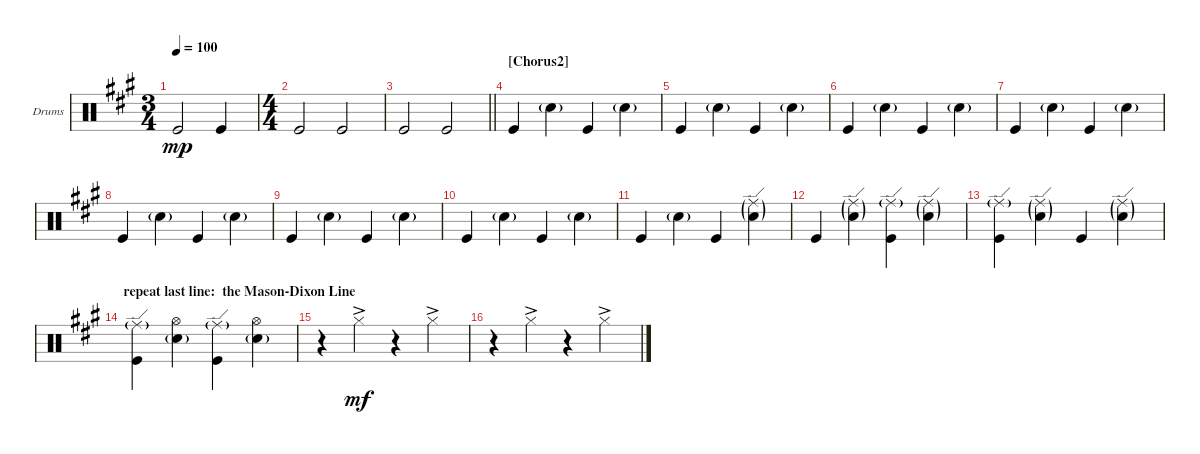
\bracketExtendMode groupsimilarinstruments
\firstSystemTrackNameOrientation horizontal
\otherSystemsTrackNameOrientation horizontal
\track ("Drumkit" "Drums") {instrument percussion}
\staff {score}
\articulation defaults
\ts (3 4)
\tempo 100
\clef neutral
\scale
0.333333
\ks f#minor "Kick (hit)".2{dy mp} "Kick (hit)".4
|
\ts (4 4)
\scale
0.514894 "Kick (hit)".2 "Kick (hit)".2 |
\scale
0.242553
\barLineRight lightlight "Kick (hit)".2 "Kick (hit)".2
|
\section ("" "[Chorus2]")
\scale
0.242553 "Kick (hit)".4 "Snare (hit) 2"{g}.4 "Kick (hit)".4 "Snare (hit) 2"{g}.4 |
\scale
0.333333 "Kick (hit)".4 "Snare (hit) 2"{g}.4 "Kick (hit)".4 "Snare (hit) 2"{g}.4 |
\scale
0.333333 "Kick (hit)".4 "Snare (hit) 2"{g}.4 "Kick (hit)".4 "Snare (hit) 2"{g}.4 |
\scale
0.333333 "Kick (hit)".4 "Snare (hit) 2"{g}.4 "Kick (hit)".4 "Snare (hit) 2"{g}.4 |
\scale
0.333333 "Kick (hit)".4 "Snare (hit) 2"{g}.4 "Kick (hit)".4 "Snare (hit) 2"{g}.4 |
\scale
0.333333 "Kick (hit)".4 "Snare (hit) 2"{g}.4 "Kick (hit)".4 "Snare (hit) 2"{g}.4 |
\scale
0.333333 "Kick (hit)".4 "Snare (hit) 2"{g}.4 "Kick (hit)".4 "Snare (hit) 2"{g}.4 |
\scale
0.333333 "Kick (hit)".4 "Snare (hit) 2"{g}.4 "Kick (hit)".4 ("Snare (hit) 2"{g} "Ride (edge)"{g}).4 |
\scale
0.333333 "Kick (hit)".4 ("Snare (hit) 2"{g} "Ride (edge)"{g}).4 ("Kick (hit)" "Ride (edge)"{g}).4 ("Snare (hit) 2"{g} "Ride (edge)"{g}).4 |
\scale
0.333333 ("Kick (hit)" "Ride (edge)"{g}).4 ("Snare (hit) 2"{g} "Ride (edge)"{g}).4 "Kick (hit)".4 ("Snare (hit) 2"{g} "Ride (edge)"{g}).4 |
\section ("" "repeat last line:  the Mason-Dixon Line")
\scale
0.333333 ("Kick (hit)" "Ride (edge)"{g}).4 ("Snare (hit) 2"{g} "Hi-Hat (open)").4 ("Kick (hit)" "Ride (edge)"{g}).4 ("Snare (hit) 2"{g} "Hi-Hat (open)").4 |
\scale
0.333333 r.4 "Hi-Hat (closed)"{ac}.4{dy mf} r.4 "Hi-Hat (closed)"{ac}.4 |
\scale
0.333333 r.4 "Hi-Hat (closed)"{ac}.4 r.4 "Hi-Hat (closed)"{ac}.4
